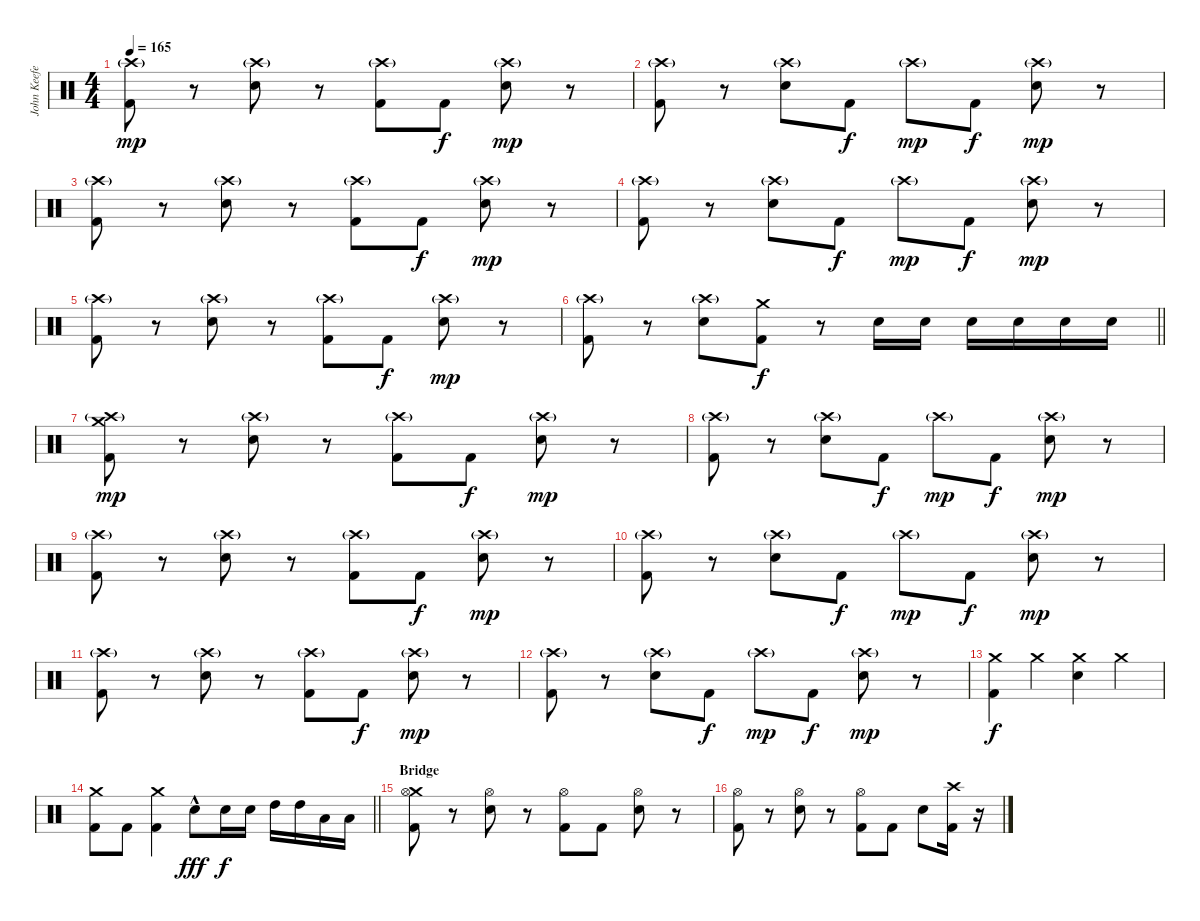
\track ("John Keefe (Percussion)" "John Keefe") {instrument percussion}
\staff {score}
\articulation defaults
\ts (4 4)
\tempo 165
\clef neutral
\ks c
("Crash high (hit)"{g} "Kick (hit) 2").8{dy mp} r.8 ("Crash high (hit)"{g} "Electric Snare (hit)").8 r.8 ("Crash high (hit)"{g} "Kick (hit) 2").8 "Kick (hit) 2".8{dy f} ("Crash high (hit)"{g} "Electric Snare (hit)").8{dy mp} r.8 |
("Crash high (hit)"{g} "Kick (hit) 2").8 r.8 ("Crash high (hit)"{g} "Electric Snare (hit)").8 "Kick (hit) 2".8{dy f} "Crash high (hit)"{g}.8{dy mp} "Kick (hit) 2".8{dy f} ("Crash high (hit)"{g} "Electric Snare (hit)").8{dy mp} r.8 |
("Crash high (hit)"{g} "Kick (hit) 2").8 r.8 ("Crash high (hit)"{g} "Electric Snare (hit)").8 r.8 ("Crash high (hit)"{g} "Kick (hit) 2").8 "Kick (hit) 2".8{dy f} ("Crash high (hit)"{g} "Electric Snare (hit)").8{dy mp} r.8 |
("Crash high (hit)"{g} "Kick (hit) 2").8 r.8 ("Crash high (hit)"{g} "Electric Snare (hit)").8 "Kick (hit) 2".8{dy f} "Crash high (hit)"{g}.8{dy mp} "Kick (hit) 2".8{dy f} ("Crash high (hit)"{g} "Electric Snare (hit)").8{dy mp} r.8 |
("Crash high (hit)"{g} "Kick (hit) 2").8 r.8 ("Crash high (hit)"{g} "Electric Snare (hit)").8 r.8 ("Crash high (hit)"{g} "Kick (hit) 2").8 "Kick (hit) 2".8{dy f} ("Crash high (hit)"{g} "Electric Snare (hit)").8{dy mp} r.8 |
\barLineRight lightlight
("Crash high (hit)"{g} "Kick (hit) 2").8 r.8 ("Crash high (hit)"{g} "Electric Snare (hit)").8 ("Crash medium (hit)" "Kick (hit) 2").8{dy f} r.8 "Electric Snare (hit)".16 "Electric Snare (hit)".16 "Electric Snare (hit)".16 "Electric Snare (hit)".16 "Electric Snare (hit)".16 "Electric Snare (hit)".16 |
("Crash high (hit)"{g} "Crash medium (hit)" "Kick (hit) 2").8{dy mp} r.8 ("Crash high (hit)"{g} "Electric Snare (hit)").8 r.8 ("Crash high (hit)"{g} "Kick (hit) 2").8 "Kick (hit) 2".8{dy f} ("Crash high (hit)"{g} "Electric Snare (hit)").8{dy mp} r.8 |
("Crash high (hit)"{g} "Kick (hit) 2").8 r.8 ("Crash high (hit)"{g} "Electric Snare (hit)").8 "Kick (hit) 2".8{dy f} "Crash high (hit)"{g}.8{dy mp} "Kick (hit) 2".8{dy f} ("Crash high (hit)"{g} "Electric Snare (hit)").8{dy mp} r.8 |
("Crash high (hit)"{g} "Kick (hit) 2").8 r.8 ("Crash high (hit)"{g} "Electric Snare (hit)").8 r.8 ("Crash high (hit)"{g} "Kick (hit) 2").8 "Kick (hit) 2".8{dy f} ("Crash high (hit)"{g} "Electric Snare (hit)").8{dy mp} r.8 |
("Crash high (hit)"{g} "Kick (hit) 2").8 r.8 ("Crash high (hit)"{g} "Electric Snare (hit)").8 "Kick (hit) 2".8{dy f} "Crash high (hit)"{g}.8{dy mp} "Kick (hit) 2".8{dy f} ("Crash high (hit)"{g} "Electric Snare (hit)").8{dy mp} r.8 |
("Crash high (hit)"{g} "Kick (hit) 2").8 r.8 ("Crash high (hit)"{g} "Electric Snare (hit)").8 r.8 ("Crash high (hit)"{g} "Kick (hit) 2").8 "Kick (hit) 2".8{dy f} ("Crash high (hit)"{g} "Electric Snare (hit)").8{dy mp} r.8 |
("Crash high (hit)"{g} "Kick (hit) 2").8 r.8 ("Crash high (hit)"{g} "Electric Snare (hit)").8 "Kick (hit) 2".8{dy f} "Crash high (hit)"{g}.8{dy mp} "Kick (hit) 2".8{dy f} ("Crash high (hit)"{g} "Electric Snare (hit)").8{dy mp} r.8 |
("Crash medium (hit)" "Kick (hit) 2").4{dy f} "Crash medium (hit)".4 ("Crash medium (hit)" "Electric Snare (hit)").4 "Crash medium (hit)".4 |
\barLineRight lightlight
("Crash medium (hit)" "Kick (hit) 2").8 "Kick (hit) 2".8 ("Crash medium (hit)" "Kick (hit) 2").4 "Electric Snare (hit)"{hac}.8{dy fff} "Electric Snare (hit)".16{dy f} "Electric Snare (hit)".16 "High Tom (hit)".16 "High Tom (hit)".16 "Low Tom (hit)".16 "Low Tom (hit)".16 |
\section ("" "Bridge")
("Crash medium (hit)" "Hi-Hat (open)" "Kick (hit) 2").8 r.8 ("Hi-Hat (open)" "Electric Snare (hit)").8 r.8 ("Hi-Hat (open)" "Kick (hit) 2").8 "Kick (hit) 2".8 ("Hi-Hat (open)" "Electric Snare (hit)").8 r.8 |
("Hi-Hat (open)" "Kick (hit) 2").8 r.8 ("Hi-Hat (open)" "Electric Snare (hit)").8 r.8 ("Hi-Hat (open)" "Kick (hit) 2").8 "Kick (hit) 2".8 "Electric Snare (hit)".8 ("Crash high (hit)" "Kick (hit) 2").16 r.16
